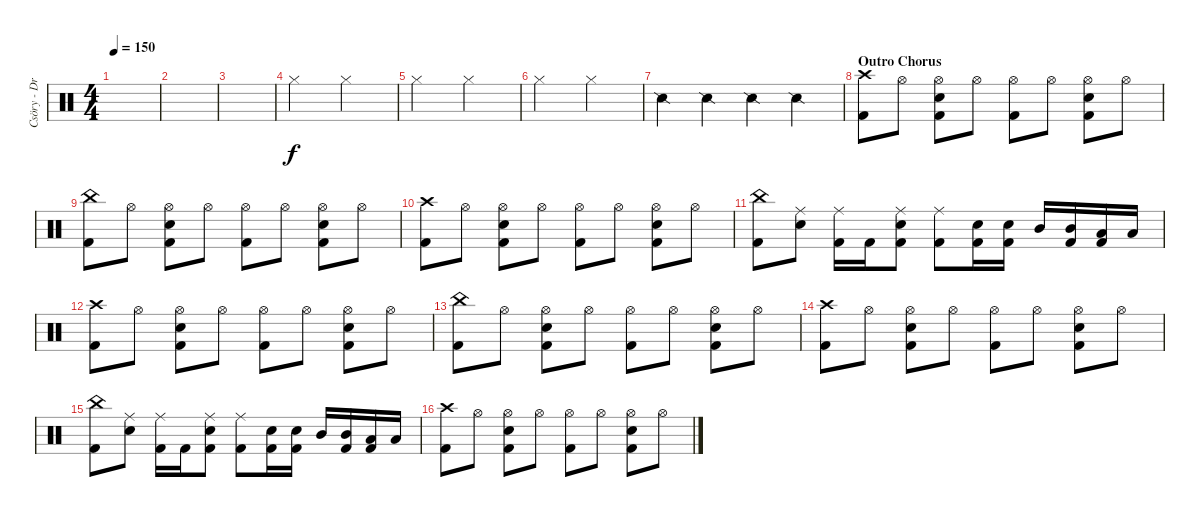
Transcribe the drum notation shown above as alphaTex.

\track ("Csöry - DrumZ" "Csöry - Dr") {instrument percussion}
\staff {score}
\articulation defaults
\ts (4 4)
\tempo 150
\clef neutral
\ks c
|
|
|
"Hi-Hat (closed)".2 "Hi-Hat (closed)".2 |
"Hi-Hat (closed)".2 "Hi-Hat (closed)".2 |
"Hi-Hat (closed)".2 "Hi-Hat (closed)".2 |
"Snare (side stick) 2".4 "Snare (side stick) 2".4 "Snare (side stick) 2".4 "Snare (side stick) 2".4 |
\section ("" "Outro Chorus")
("Crash high (hit)" "Kick (hit) 2").8 "Hi-Hat (open)".8 ("Hi-Hat (open)" "Snare (hit) 2" "Kick (hit) 2").8 "Hi-Hat (open)".8 ("Hi-Hat (open)" "Kick (hit) 2").8 "Hi-Hat (open)".8 ("Hi-Hat (open)" "Snare (hit) 2" "Kick (hit) 2").8 "Hi-Hat (open)".8 |
("China (hit)" "Kick (hit) 2").8 "Hi-Hat (open)".8 ("Hi-Hat (open)" "Snare (hit) 2" "Kick (hit) 2").8 "Hi-Hat (open)".8 ("Hi-Hat (open)" "Kick (hit) 2").8 "Hi-Hat (open)".8 ("Hi-Hat (open)" "Snare (hit) 2" "Kick (hit) 2").8 "Hi-Hat (open)".8 |
("Crash high (hit)" "Kick (hit) 2").8 "Hi-Hat (open)".8 ("Hi-Hat (open)" "Snare (hit) 2" "Kick (hit) 2").8 "Hi-Hat (open)".8 ("Hi-Hat (open)" "Kick (hit) 2").8 "Hi-Hat (open)".8 ("Hi-Hat (open)" "Snare (hit) 2" "Kick (hit) 2").8 "Hi-Hat (open)".8 |
("China (hit)" "Kick (hit) 2").8 ("Ride (middle)" "Snare (hit) 2").8 ("Ride (middle)" "Kick (hit) 2").16 "Kick (hit) 2".16 ("Ride (middle)" "Snare (hit) 2" "Kick (hit) 2").8 ("Ride (middle)" "Kick (hit) 2").8 ("Snare (hit) 2" "Kick (hit) 2").16 ("Snare (hit) 2" "Kick (hit) 2").16 "Mid Tom (hit)".16 ("Mid Tom (hit)" "Kick (hit) 2").16 ("Low Tom (hit)" "Kick (hit) 2").16 "Low Floor Tom (hit)".16 |
("Crash high (hit)" "Kick (hit) 2").8 "Hi-Hat (open)".8 ("Hi-Hat (open)" "Snare (hit) 2" "Kick (hit) 2").8 "Hi-Hat (open)".8 ("Hi-Hat (open)" "Kick (hit) 2").8 "Hi-Hat (open)".8 ("Hi-Hat (open)" "Snare (hit) 2" "Kick (hit) 2").8 "Hi-Hat (open)".8 |
("China (hit)" "Kick (hit) 2").8 "Hi-Hat (open)".8 ("Hi-Hat (open)" "Snare (hit) 2" "Kick (hit) 2").8 "Hi-Hat (open)".8 ("Hi-Hat (open)" "Kick (hit) 2").8 "Hi-Hat (open)".8 ("Hi-Hat (open)" "Snare (hit) 2" "Kick (hit) 2").8 "Hi-Hat (open)".8 |
("Crash high (hit)" "Kick (hit) 2").8 "Hi-Hat (open)".8 ("Hi-Hat (open)" "Snare (hit) 2" "Kick (hit) 2").8 "Hi-Hat (open)".8 ("Hi-Hat (open)" "Kick (hit) 2").8 "Hi-Hat (open)".8 ("Hi-Hat (open)" "Snare (hit) 2" "Kick (hit) 2").8 "Hi-Hat (open)".8 |
("China (hit)" "Kick (hit) 2").8 ("Ride (middle)" "Snare (hit) 2").8 ("Ride (middle)" "Kick (hit) 2").16 "Kick (hit) 2".16 ("Ride (middle)" "Snare (hit) 2" "Kick (hit) 2").8 ("Ride (middle)" "Kick (hit) 2").8 ("Snare (hit) 2" "Kick (hit) 2").16 ("Snare (hit) 2" "Kick (hit) 2").16 "Mid Tom (hit)".16 ("Mid Tom (hit)" "Kick (hit) 2").16 ("Low Tom (hit)" "Kick (hit) 2").16 "Low Floor Tom (hit)".16 |
("Crash high (hit)" "Kick (hit) 2").8 "Hi-Hat (open)".8 ("Hi-Hat (open)" "Snare (hit) 2" "Kick (hit) 2").8 "Hi-Hat (open)".8 ("Hi-Hat (open)" "Kick (hit) 2").8 "Hi-Hat (open)".8 ("Hi-Hat (open)" "Snare (hit) 2" "Kick (hit) 2").8 "Hi-Hat (open)".8
